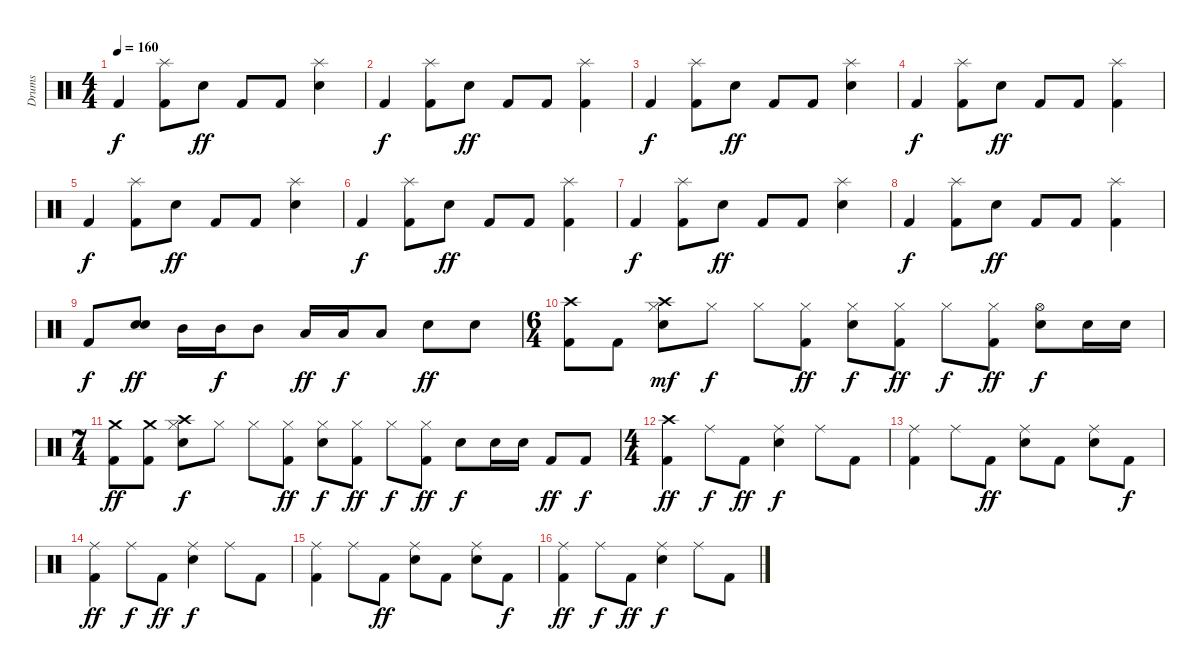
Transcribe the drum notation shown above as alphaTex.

\track ("Drums" "Drums") {instrument percussion}
\staff {score}
\articulation defaults
\ts (4 4)
\tempo 160
\clef neutral
\ks c "Kick (hit) 2".4{dy f}
("Kick (hit) 2" "Splash (hit)").8 "Snare (hit) 2".8{dy ff} "Kick (hit) 2".8 "Kick (hit) 2".8 ("Snare (hit) 2" "Splash (hit)").4 |
"Kick (hit) 2".4{dy f} ("Kick (hit) 2" "Splash (hit)").8 "Snare (hit) 2".8{dy ff} "Kick (hit) 2".8 "Kick (hit) 2".8 ("Kick (hit) 2" "Splash (hit)").4 |
"Kick (hit) 2".4{dy f} ("Kick (hit) 2" "Splash (hit)").8 "Snare (hit) 2".8{dy ff} "Kick (hit) 2".8 "Kick (hit) 2".8 ("Snare (hit) 2" "Splash (hit)").4 |
"Kick (hit) 2".4{dy f} ("Kick (hit) 2" "Splash (hit)").8 "Snare (hit) 2".8{dy ff} "Kick (hit) 2".8 "Kick (hit) 2".8 ("Kick (hit) 2" "Splash (hit)").4 |
"Kick (hit) 2".4{dy f} ("Kick (hit) 2" "Splash (hit)").8 "Snare (hit) 2".8{dy ff} "Kick (hit) 2".8 "Kick (hit) 2".8 ("Snare (hit) 2" "Splash (hit)").4 |
"Kick (hit) 2".4{dy f} ("Kick (hit) 2" "Splash (hit)").8 "Snare (hit) 2".8{dy ff} "Kick (hit) 2".8 "Kick (hit) 2".8 ("Kick (hit) 2" "Splash (hit)").4 |
"Kick (hit) 2".4{dy f} ("Kick (hit) 2" "Splash (hit)").8 "Snare (hit) 2".8{dy ff} "Kick (hit) 2".8 "Kick (hit) 2".8 ("Snare (hit) 2" "Splash (hit)").4 |
"Kick (hit) 2".4{dy f} ("Kick (hit) 2" "Splash (hit)").8 "Snare (hit) 2".8{dy ff} "Kick (hit) 2".8 "Kick (hit) 2".8 ("Kick (hit) 2" "Splash (hit)").4 |
"Kick (hit) 2".8{dy f} ("Snare (hit) 2" "Snare (hit) 2").8{dy ff} "Mid Tom (hit)".16 "Mid Tom (hit)".16{dy f} "Mid Tom (hit)".8 "Low Tom (hit)".16{dy ff} "Low Tom (hit)".16{dy f} "Low Tom (hit)".8 "Snare (hit) 2".8{dy ff} "Snare (hit) 2".8 |
\ts (6 4)
("Crash high (hit)" "Kick (hit) 2").8 "Kick (hit) 2".8 ("Crash high (hit)" "Hi-Hat (closed)" "Snare (hit) 2").8{dy mf} "Hi-Hat (closed)".8{dy f} "Hi-Hat (closed)".8 ("Hi-Hat (closed)" "Kick (hit) 2").8{dy ff} ("Hi-Hat (closed)" "Snare (hit) 2").8{dy f} ("Hi-Hat (closed)" "Kick (hit) 2").8{dy ff} "Hi-Hat (closed)".8{dy f} ("Hi-Hat (closed)" "Kick (hit) 2").8{dy ff} ("Hi-Hat (open)" "Snare (hit) 2").8{dy f} "Snare (hit) 2".16 "Snare (hit) 2".16 |
\ts (7 4)
("Crash medium (hit)" "Kick (hit) 2").8{dy ff} ("Crash medium (hit)" "Kick (hit) 2").8 ("Crash high (hit)" "Hi-Hat (closed)" "Snare (hit) 2").8{dy f} "Hi-Hat (closed)".8 "Hi-Hat (closed)".8 ("Hi-Hat (closed)" "Kick (hit) 2").8{dy ff} ("Hi-Hat (closed)" "Snare (hit) 2").8{dy f} ("Hi-Hat (closed)" "Kick (hit) 2").8{dy ff} "Hi-Hat (closed)".8{dy f} ("Hi-Hat (closed)" "Kick (hit) 2").8{dy ff} "Snare (hit) 2".8{dy f} "Snare (hit) 2".16 "Snare (hit) 2".16 "Kick (hit) 2".8{dy ff} "Kick (hit) 2".8{dy f} |
\ts (4 4)
("Crash high (hit)" "Kick (hit) 2").4{dy ff} "Ride (middle)".8{dy f} "Kick (hit) 2".8{dy ff} ("Ride (middle)" "Snare (hit) 2").4{dy f} "Ride (middle)".8 "Kick (hit) 2".8 |
("Ride (middle)" "Kick (hit) 2").4 "Ride (middle)".8 "Kick (hit) 2".8{dy ff} ("Ride (middle)" "Snare (hit) 2").8 "Kick (hit) 2".8 ("Ride (middle)" "Snare (hit) 2").8 "Kick (hit) 2".8{dy f} |
("Ride (middle)" "Kick (hit) 2").4{dy ff} "Ride (middle)".8{dy f} "Kick (hit) 2".8{dy ff} ("Ride (middle)" "Snare (hit) 2").4{dy f} "Ride (middle)".8 "Kick (hit) 2".8 |
("Ride (middle)" "Kick (hit) 2").4 "Ride (middle)".8 "Kick (hit) 2".8{dy ff} ("Ride (middle)" "Snare (hit) 2").8 "Kick (hit) 2".8 ("Ride (middle)" "Snare (hit) 2").8 "Kick (hit) 2".8{dy f} |
("Ride (middle)" "Kick (hit) 2").4{dy ff} "Ride (middle)".8{dy f} "Kick (hit) 2".8{dy ff} ("Ride (middle)" "Snare (hit) 2").4{dy f} "Ride (middle)".8 "Kick (hit) 2".8
